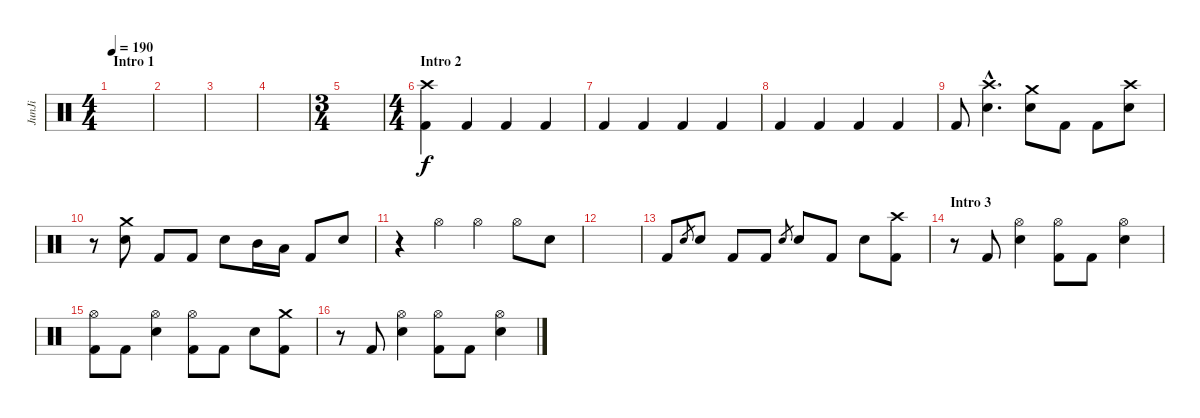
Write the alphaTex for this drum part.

\track ("JunJi" "JunJi") {instrument percussion}
\staff {score}
\articulation defaults
\ts (4 4)
\section ("" "Intro 1")
\tempo 190
\clef neutral
\ks c
|
|
|
|
\ts (3 4)
|
\ts (4 4)
\section ("" "Intro 2")
("Crash high (hit)" "Kick (hit) 2").4 "Kick (hit) 2".4 "Kick (hit) 2".4 "Kick (hit) 2".4 |
"Kick (hit) 2".4 "Kick (hit) 2".4 "Kick (hit) 2".4 "Kick (hit) 2".4 |
"Kick (hit) 2".4 "Kick (hit) 2".4 "Kick (hit) 2".4 "Kick (hit) 2".4 |
"Kick (hit) 2".8 ("Crash high (hit)"{hac} "Snare (hit) 2"{hac}).4{d} ("Crash medium (hit)" "Snare (hit) 2").8 "Kick (hit) 2".8 "Kick (hit) 2".8 ("Crash high (hit)" "Snare (hit) 2").8 |
r.8 ("Crash medium (hit)" "Snare (hit) 2").8 "Kick (hit) 2".8 "Kick (hit) 2".8 "Snare (hit) 2".8 "Mid Tom (hit)".16 "Low Tom (hit)".16 "Kick (hit) 2".8 "Snare (hit) 2".8 |
r.4 "Hi-Hat (open)".4 "Hi-Hat (open)".4 "Hi-Hat (open)".8 "Snare (hit) 2".8 |
|
"Kick (hit) 2".8 "Snare (hit) 2".8{gr} "Snare (hit) 2".8 "Kick (hit) 2".8 "Kick (hit) 2".8 "Snare (hit) 2".8{gr} "Snare (hit) 2".8 "Kick (hit) 2".8 "Snare (hit) 2".8 ("Crash high (hit)" "Kick (hit) 2").8 |
\section ("" "Intro 3")
r.8 "Kick (hit) 2".8 ("Hi-Hat (open)" "Snare (hit) 2").4 ("Hi-Hat (open)" "Kick (hit) 2").8 "Kick (hit) 2".8 ("Hi-Hat (open)" "Snare (hit) 2").4 |
("Hi-Hat (open)" "Kick (hit) 2").8 "Kick (hit) 2".8 ("Hi-Hat (open)" "Snare (hit) 2").4 ("Hi-Hat (open)" "Kick (hit) 2").8 "Kick (hit) 2".8 "Snare (hit) 2".8 ("Crash medium (hit)" "Kick (hit) 2").8 |
r.8 "Kick (hit) 2".8 ("Hi-Hat (open)" "Snare (hit) 2").4 ("Hi-Hat (open)" "Kick (hit) 2").8 "Kick (hit) 2".8 ("Hi-Hat (open)" "Snare (hit) 2").4
